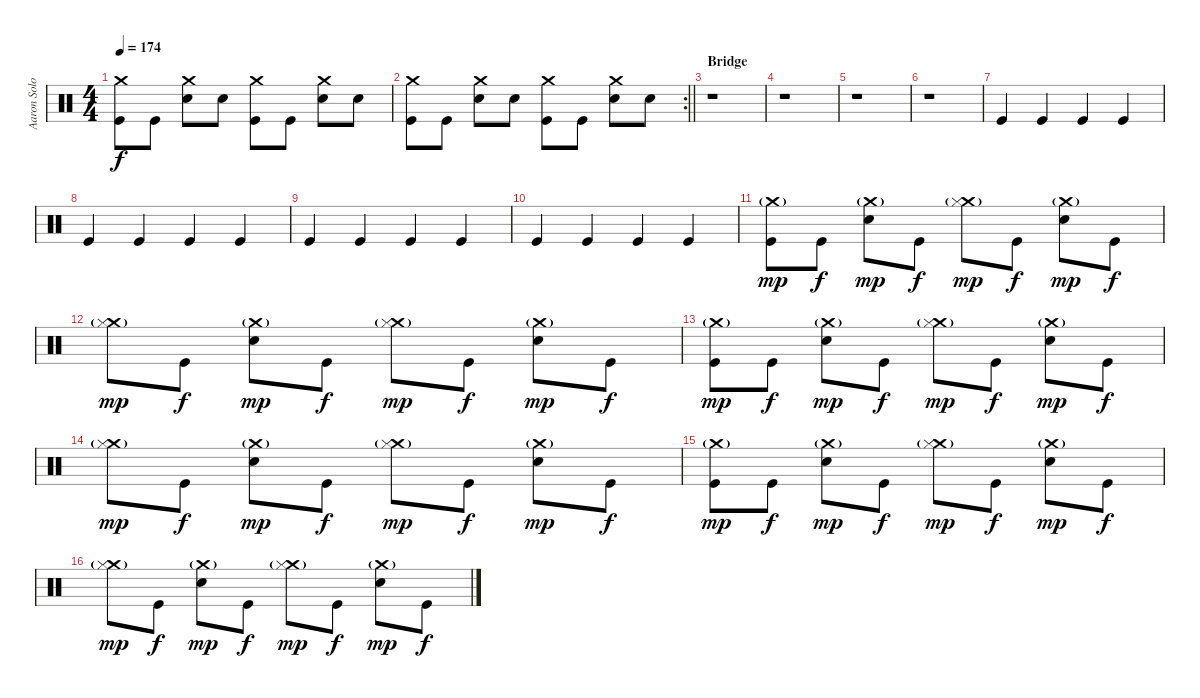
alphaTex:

\track ("Aaron Solowoniuk" "Aaron Solo") {instrument percussion}
\staff {score}
\articulation defaults
\ts (4 4)
\tempo 174
\clef neutral
\ks c
("Kick (hit)" "Crash medium (hit)").8{dy f} "Kick (hit)".8 ("Snare (hit) 2" "Crash medium (hit)").8 "Snare (hit) 2".8 ("Kick (hit)" "Crash medium (hit)").8 "Kick (hit)".8 ("Snare (hit) 2" "Crash medium (hit)").8 "Snare (hit) 2".8 |
\rc 2
\barLineRight lightlight
("Kick (hit)" "Crash medium (hit)").8 "Kick (hit)".8 ("Snare (hit) 2" "Crash medium (hit)").8 "Snare (hit) 2".8 ("Kick (hit)" "Crash medium (hit)").8 "Kick (hit)".8 ("Snare (hit) 2" "Crash medium (hit)").8 "Snare (hit) 2".8 |
\section ("" "Bridge")
r.1 |
r.1 |
r.1 |
r.1 |
"Kick (hit)".4 "Kick (hit)".4 "Kick (hit)".4 "Kick (hit)".4 |
"Kick (hit)".4 "Kick (hit)".4 "Kick (hit)".4 "Kick (hit)".4 |
"Kick (hit)".4 "Kick (hit)".4 "Kick (hit)".4 "Kick (hit)".4 |
"Kick (hit)".4 "Kick (hit)".4 "Kick (hit)".4 "Kick (hit)".4 |
("Kick (hit)" "Crash medium (hit)"{g}).8{dy mp} "Kick (hit)".8{dy f} ("Crash medium (hit)"{g} "Electric Snare (hit)").8{dy mp} "Kick (hit)".8{dy f} ("Crash medium (hit)"{g} "Hi-Hat (closed)").8{dy mp} "Kick (hit)".8{dy f} ("Crash medium (hit)"{g} "Electric Snare (hit)").8{dy mp} "Kick (hit)".8{dy f} |
("Crash medium (hit)"{g} "Hi-Hat (closed)").8{dy mp} "Kick (hit)".8{dy f} ("Crash medium (hit)"{g} "Electric Snare (hit)").8{dy mp} "Kick (hit)".8{dy f} ("Crash medium (hit)"{g} "Hi-Hat (closed)").8{dy mp} "Kick (hit)".8{dy f} ("Crash medium (hit)"{g} "Electric Snare (hit)").8{dy mp} "Kick (hit)".8{dy f} |
("Kick (hit)" "Crash medium (hit)"{g}).8{dy mp} "Kick (hit)".8{dy f} ("Crash medium (hit)"{g} "Electric Snare (hit)").8{dy mp} "Kick (hit)".8{dy f} ("Crash medium (hit)"{g} "Hi-Hat (closed)").8{dy mp} "Kick (hit)".8{dy f} ("Crash medium (hit)"{g} "Electric Snare (hit)").8{dy mp} "Kick (hit)".8{dy f} |
("Crash medium (hit)"{g} "Hi-Hat (closed)").8{dy mp} "Kick (hit)".8{dy f} ("Crash medium (hit)"{g} "Electric Snare (hit)").8{dy mp} "Kick (hit)".8{dy f} ("Crash medium (hit)"{g} "Hi-Hat (closed)").8{dy mp} "Kick (hit)".8{dy f} ("Crash medium (hit)"{g} "Electric Snare (hit)").8{dy mp} "Kick (hit)".8{dy f} |
("Kick (hit)" "Crash medium (hit)"{g}).8{dy mp} "Kick (hit)".8{dy f} ("Crash medium (hit)"{g} "Electric Snare (hit)").8{dy mp} "Kick (hit)".8{dy f} ("Crash medium (hit)"{g} "Hi-Hat (closed)").8{dy mp} "Kick (hit)".8{dy f} ("Crash medium (hit)"{g} "Electric Snare (hit)").8{dy mp} "Kick (hit)".8{dy f} |
("Crash medium (hit)"{g} "Hi-Hat (closed)").8{dy mp} "Kick (hit)".8{dy f} ("Crash medium (hit)"{g} "Electric Snare (hit)").8{dy mp} "Kick (hit)".8{dy f} ("Crash medium (hit)"{g} "Hi-Hat (closed)").8{dy mp} "Kick (hit)".8{dy f} ("Crash medium (hit)"{g} "Electric Snare (hit)").8{dy mp} "Kick (hit)".8{dy f}
